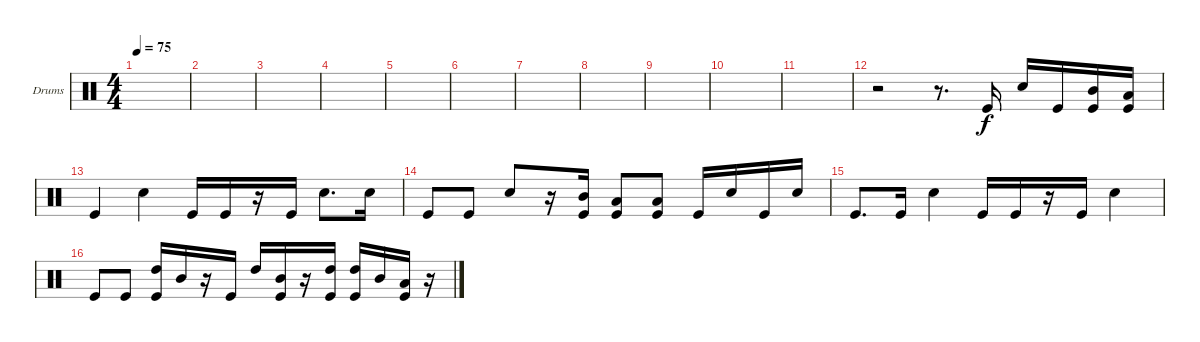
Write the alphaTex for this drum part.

\defaultSystemsLayout 4
\bracketExtendMode groupsimilarinstruments
\firstSystemTrackNameOrientation horizontal
\otherSystemsTrackNameOrientation horizontal
\track ("Drumkit" "Drums") {instrument percussion}
\staff {score}
\articulation defaults
\ts (4 4)
\tempo 75
\clef neutral
\scale
0.263889
\ks c
|
\scale
0.333333 |
\scale
0.333333 |
\scale
0.333333 |
\scale
0.333333 |
\scale
0.333333 |
\scale
0.333333 |
\scale
0.333333 |
\scale
0.333333 |
\scale
0.333333 |
\scale
0.333333 |
\scale
0.333333 r.2 r.8{d} "Kick (hit)".16 "Snare (hit) 2".16 "Kick (hit)".16 ("Mid Tom (hit)" "Kick (hit)").16 ("Low Tom (hit)" "Kick (hit)").16 |
\scale
0.333333 "Kick (hit)".4 "Snare (hit) 2".4 "Kick (hit)".16 "Kick (hit)".16 r.16 "Kick (hit)".16 "Snare (hit) 2".8{d} "Snare (hit) 2".16 |
"Kick (hit)".8 "Kick (hit)".8 "Snare (hit) 2".8 r.16 ("Kick (hit)" "Mid Tom (hit)").16 ("Kick (hit)" "Low Tom (hit)").8 ("Kick (hit)" "Low Tom (hit)").8 "Kick (hit)".16 "Snare (hit) 2".16 "Kick (hit)".16 "Snare (hit) 2".16 |
"Kick (hit)".8{d} "Kick (hit)".16 "Snare (hit) 2".4 "Kick (hit)".16 "Kick (hit)".16 r.16 "Kick (hit)".16 "Snare (hit) 2".4 |
"Kick (hit)".8 "Kick (hit)".8 ("High Tom (hit)" "Kick (hit)").16 "Mid Tom (hit)".16 r.16 "Kick (hit)".16 "High Tom (hit)".16 ("Mid Tom (hit)" "Kick (hit)").16 r.16 ("High Tom (hit)" "Kick (hit)").16 ("High Tom (hit)" "Kick (hit)").16 "Mid Tom (hit)".16 ("Low Tom (hit)" "Kick (hit)").16 r.16
